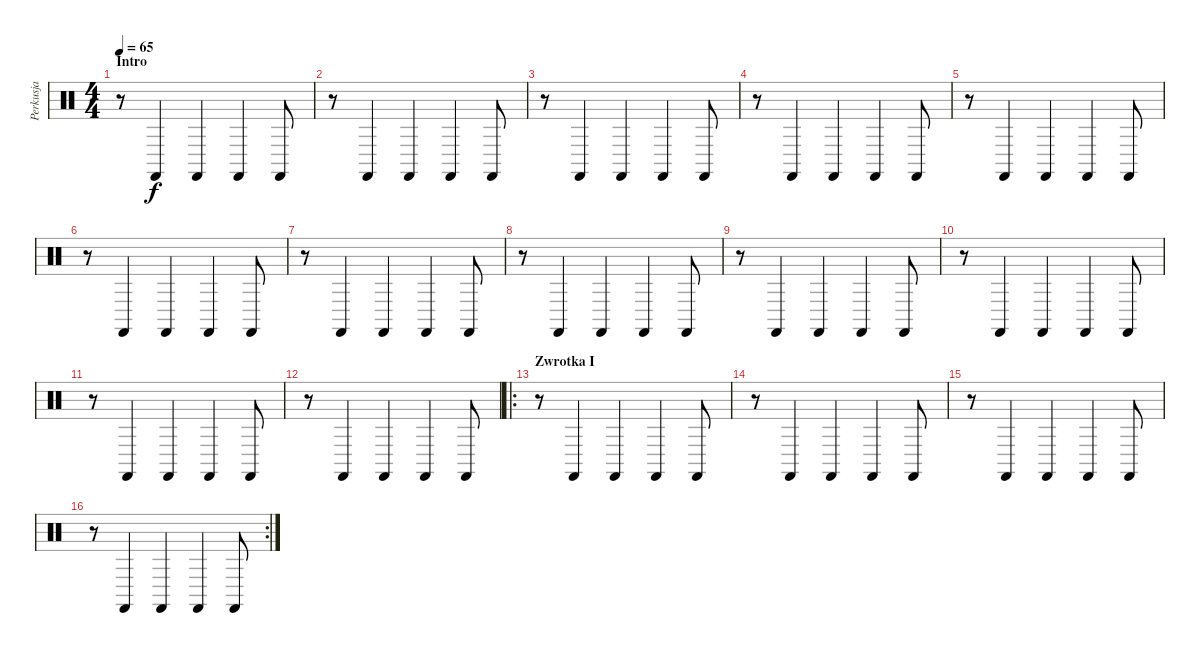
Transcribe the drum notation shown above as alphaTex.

\track ("Perkusja" "Perkusja") {instrument percussion}
\staff {score}
\articulation defaults
\ts (4 4)
\section ("" "Intro")
\tempo 65
\clef neutral
\ks c
r.8{dy f} "Castanets (hit)".4 "Castanets (hit)".4 "Castanets (hit)".4 "Castanets (hit)".8 |
r.8 "Castanets (hit)".4 "Castanets (hit)".4 "Castanets (hit)".4 "Castanets (hit)".8 |
r.8 "Castanets (hit)".4 "Castanets (hit)".4 "Castanets (hit)".4 "Castanets (hit)".8 |
r.8 "Castanets (hit)".4 "Castanets (hit)".4 "Castanets (hit)".4 "Castanets (hit)".8 |
r.8 "Castanets (hit)".4 "Castanets (hit)".4 "Castanets (hit)".4 "Castanets (hit)".8 |
r.8 "Castanets (hit)".4 "Castanets (hit)".4 "Castanets (hit)".4 "Castanets (hit)".8 |
r.8 "Castanets (hit)".4 "Castanets (hit)".4 "Castanets (hit)".4 "Castanets (hit)".8 |
r.8 "Castanets (hit)".4 "Castanets (hit)".4 "Castanets (hit)".4 "Castanets (hit)".8 |
r.8 "Castanets (hit)".4 "Castanets (hit)".4 "Castanets (hit)".4 "Castanets (hit)".8 |
r.8 "Castanets (hit)".4 "Castanets (hit)".4 "Castanets (hit)".4 "Castanets (hit)".8 |
r.8 "Castanets (hit)".4 "Castanets (hit)".4 "Castanets (hit)".4 "Castanets (hit)".8 |
r.8 "Castanets (hit)".4 "Castanets (hit)".4 "Castanets (hit)".4 "Castanets (hit)".8 |
\ro
\section ("" "Zwrotka I")
r.8 "Castanets (hit)".4 "Castanets (hit)".4 "Castanets (hit)".4 "Castanets (hit)".8 |
r.8 "Castanets (hit)".4 "Castanets (hit)".4 "Castanets (hit)".4 "Castanets (hit)".8 |
r.8 "Castanets (hit)".4 "Castanets (hit)".4 "Castanets (hit)".4 "Castanets (hit)".8 |
\rc 2
r.8 "Castanets (hit)".4 "Castanets (hit)".4 "Castanets (hit)".4 "Castanets (hit)".8
